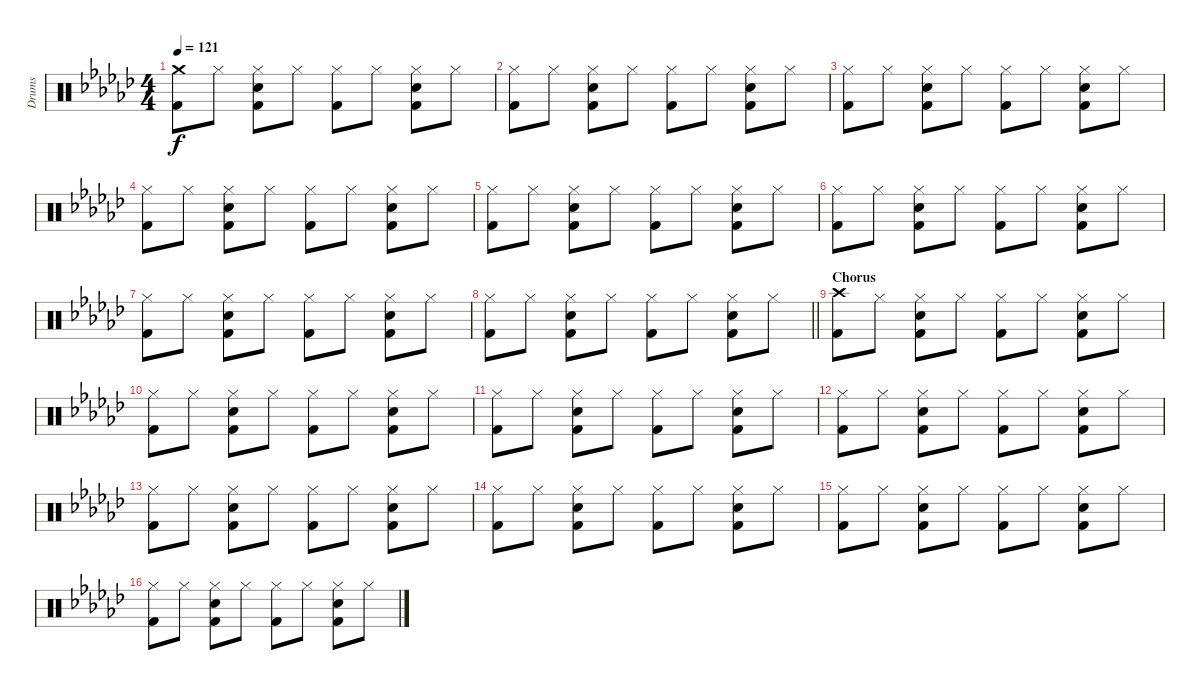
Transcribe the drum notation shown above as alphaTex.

\track ("Drums" "Drums") {instrument percussion}
\staff {score}
\articulation defaults
\ts (4 4)
\tempo 121
\clef neutral
\ks ebminor
("Crash medium (hit)" "Kick (hit) 2").8{dy f} "Hi-Hat (closed)".8 ("Hi-Hat (closed)" "Snare (hit) 2" "Kick (hit) 2").8 "Hi-Hat (closed)".8 ("Hi-Hat (closed)" "Kick (hit) 2").8 "Hi-Hat (closed)".8 ("Hi-Hat (closed)" "Snare (hit) 2" "Kick (hit) 2").8 "Hi-Hat (closed)".8 |
("Hi-Hat (closed)" "Kick (hit) 2").8 "Hi-Hat (closed)".8 ("Hi-Hat (closed)" "Snare (hit) 2" "Kick (hit) 2").8 "Hi-Hat (closed)".8 ("Hi-Hat (closed)" "Kick (hit) 2").8 "Hi-Hat (closed)".8 ("Hi-Hat (closed)" "Snare (hit) 2" "Kick (hit) 2").8 "Hi-Hat (closed)".8 |
("Hi-Hat (closed)" "Kick (hit) 2").8 "Hi-Hat (closed)".8 ("Hi-Hat (closed)" "Snare (hit) 2" "Kick (hit) 2").8 "Hi-Hat (closed)".8 ("Hi-Hat (closed)" "Kick (hit) 2").8 "Hi-Hat (closed)".8 ("Hi-Hat (closed)" "Snare (hit) 2" "Kick (hit) 2").8 "Hi-Hat (closed)".8 |
("Hi-Hat (closed)" "Kick (hit) 2").8 "Hi-Hat (closed)".8 ("Hi-Hat (closed)" "Snare (hit) 2" "Kick (hit) 2").8 "Hi-Hat (closed)".8 ("Hi-Hat (closed)" "Kick (hit) 2").8 "Hi-Hat (closed)".8 ("Hi-Hat (closed)" "Snare (hit) 2" "Kick (hit) 2").8 "Hi-Hat (closed)".8 |
("Hi-Hat (closed)" "Kick (hit) 2").8 "Hi-Hat (closed)".8 ("Hi-Hat (closed)" "Snare (hit) 2" "Kick (hit) 2").8 "Hi-Hat (closed)".8 ("Hi-Hat (closed)" "Kick (hit) 2").8 "Hi-Hat (closed)".8 ("Hi-Hat (closed)" "Snare (hit) 2" "Kick (hit) 2").8 "Hi-Hat (closed)".8 |
("Hi-Hat (closed)" "Kick (hit) 2").8 "Hi-Hat (closed)".8 ("Hi-Hat (closed)" "Snare (hit) 2" "Kick (hit) 2").8 "Hi-Hat (closed)".8 ("Hi-Hat (closed)" "Kick (hit) 2").8 "Hi-Hat (closed)".8 ("Hi-Hat (closed)" "Snare (hit) 2" "Kick (hit) 2").8 "Hi-Hat (closed)".8 |
("Hi-Hat (closed)" "Kick (hit) 2").8 "Hi-Hat (closed)".8 ("Hi-Hat (closed)" "Snare (hit) 2" "Kick (hit) 2").8 "Hi-Hat (closed)".8 ("Hi-Hat (closed)" "Kick (hit) 2").8 "Hi-Hat (closed)".8 ("Hi-Hat (closed)" "Snare (hit) 2" "Kick (hit) 2").8 "Hi-Hat (closed)".8 |
\barLineRight lightlight
("Hi-Hat (closed)" "Kick (hit) 2").8 "Hi-Hat (closed)".8 ("Hi-Hat (closed)" "Snare (hit) 2" "Kick (hit) 2").8 "Hi-Hat (closed)".8 ("Hi-Hat (closed)" "Kick (hit) 2").8 "Hi-Hat (closed)".8 ("Hi-Hat (closed)" "Snare (hit) 2" "Kick (hit) 2").8 "Hi-Hat (closed)".8 |
\section ("" "Chorus")
("Crash high (hit)" "Kick (hit) 2").8 "Hi-Hat (closed)".8 ("Hi-Hat (closed)" "Snare (hit) 2" "Kick (hit) 2").8 "Hi-Hat (closed)".8 ("Hi-Hat (closed)" "Kick (hit) 2").8 "Hi-Hat (closed)".8 ("Hi-Hat (closed)" "Snare (hit) 2" "Kick (hit) 2").8 "Hi-Hat (closed)".8 |
("Hi-Hat (closed)" "Kick (hit) 2").8 "Hi-Hat (closed)".8 ("Hi-Hat (closed)" "Snare (hit) 2" "Kick (hit) 2").8 "Hi-Hat (closed)".8 ("Hi-Hat (closed)" "Kick (hit) 2").8 "Hi-Hat (closed)".8 ("Hi-Hat (closed)" "Snare (hit) 2" "Kick (hit) 2").8 "Hi-Hat (closed)".8 |
("Hi-Hat (closed)" "Kick (hit) 2").8 "Hi-Hat (closed)".8 ("Hi-Hat (closed)" "Snare (hit) 2" "Kick (hit) 2").8 "Hi-Hat (closed)".8 ("Hi-Hat (closed)" "Kick (hit) 2").8 "Hi-Hat (closed)".8 ("Hi-Hat (closed)" "Snare (hit) 2" "Kick (hit) 2").8 "Hi-Hat (closed)".8 |
("Hi-Hat (closed)" "Kick (hit) 2").8 "Hi-Hat (closed)".8 ("Hi-Hat (closed)" "Snare (hit) 2" "Kick (hit) 2").8 "Hi-Hat (closed)".8 ("Hi-Hat (closed)" "Kick (hit) 2").8 "Hi-Hat (closed)".8 ("Hi-Hat (closed)" "Snare (hit) 2" "Kick (hit) 2").8 "Hi-Hat (closed)".8 |
("Hi-Hat (closed)" "Kick (hit) 2").8 "Hi-Hat (closed)".8 ("Hi-Hat (closed)" "Snare (hit) 2" "Kick (hit) 2").8 "Hi-Hat (closed)".8 ("Hi-Hat (closed)" "Kick (hit) 2").8 "Hi-Hat (closed)".8 ("Hi-Hat (closed)" "Snare (hit) 2" "Kick (hit) 2").8 "Hi-Hat (closed)".8 |
("Hi-Hat (closed)" "Kick (hit) 2").8 "Hi-Hat (closed)".8 ("Hi-Hat (closed)" "Snare (hit) 2" "Kick (hit) 2").8 "Hi-Hat (closed)".8 ("Hi-Hat (closed)" "Kick (hit) 2").8 "Hi-Hat (closed)".8 ("Hi-Hat (closed)" "Snare (hit) 2" "Kick (hit) 2").8 "Hi-Hat (closed)".8 |
("Hi-Hat (closed)" "Kick (hit) 2").8 "Hi-Hat (closed)".8 ("Hi-Hat (closed)" "Snare (hit) 2" "Kick (hit) 2").8 "Hi-Hat (closed)".8 ("Hi-Hat (closed)" "Kick (hit) 2").8 "Hi-Hat (closed)".8 ("Hi-Hat (closed)" "Snare (hit) 2" "Kick (hit) 2").8 "Hi-Hat (closed)".8 |
("Hi-Hat (closed)" "Kick (hit) 2").8 "Hi-Hat (closed)".8 ("Hi-Hat (closed)" "Snare (hit) 2" "Kick (hit) 2").8 "Hi-Hat (closed)".8 ("Hi-Hat (closed)" "Kick (hit) 2").8 "Hi-Hat (closed)".8 ("Hi-Hat (closed)" "Snare (hit) 2" "Kick (hit) 2").8 "Hi-Hat (closed)".8
